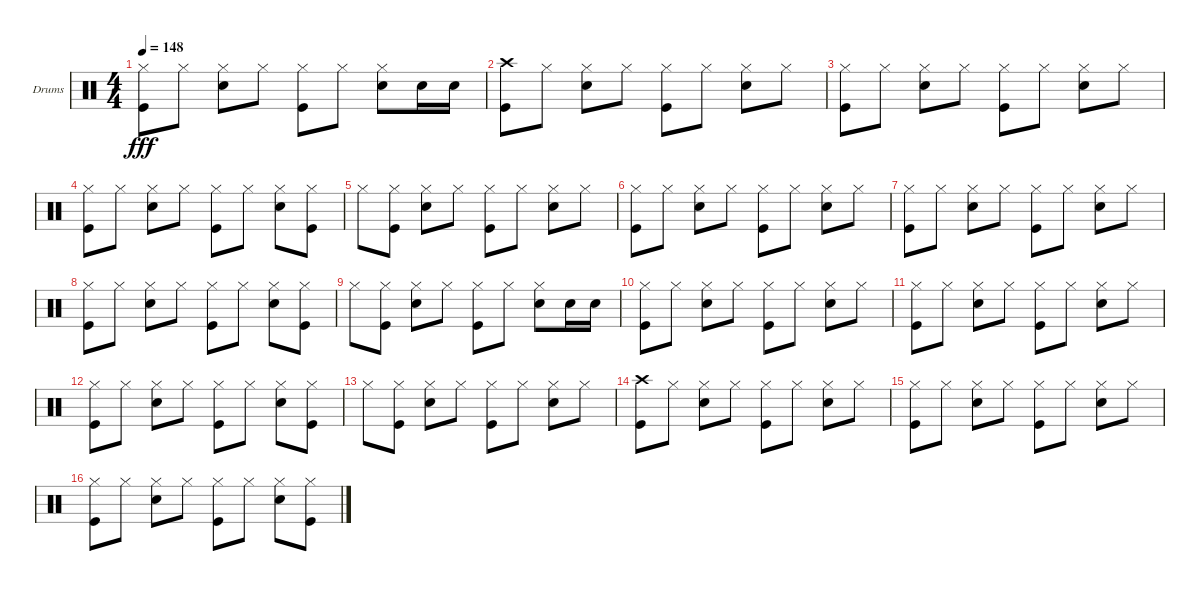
\bracketExtendMode groupsimilarinstruments
\firstSystemTrackNameOrientation horizontal
\otherSystemsTrackNameOrientation horizontal
\track ("James Kottak" "Drums") {instrument percussion}
\staff {score}
\articulation defaults
\ts (4 4)
\tempo 148
\clef neutral
\ks c
("Kick (hit)" "Hi-Hat (closed)").8{dy fff} "Hi-Hat (closed)".8 ("Hi-Hat (closed)" "Snare (hit) 2").8 "Hi-Hat (closed)".8 ("Hi-Hat (closed)" "Kick (hit)").8 "Hi-Hat (closed)".8 ("Hi-Hat (closed)" "Snare (hit) 2").8 "Snare (hit) 2".16 "Snare (hit) 2".16 |
("Kick (hit)" "Crash high (hit)").8 "Hi-Hat (closed)".8 ("Hi-Hat (closed)" "Snare (hit) 2").8 "Hi-Hat (closed)".8 ("Hi-Hat (closed)" "Kick (hit)").8 "Hi-Hat (closed)".8 ("Hi-Hat (closed)" "Snare (hit) 2").8 "Hi-Hat (closed)".8 |
("Kick (hit)" "Hi-Hat (closed)").8 "Hi-Hat (closed)".8 ("Hi-Hat (closed)" "Snare (hit) 2").8 "Hi-Hat (closed)".8 ("Hi-Hat (closed)" "Kick (hit)").8 "Hi-Hat (closed)".8 ("Hi-Hat (closed)" "Snare (hit) 2").8 "Hi-Hat (closed)".8 |
("Kick (hit)" "Hi-Hat (closed)").8 "Hi-Hat (closed)".8 ("Hi-Hat (closed)" "Snare (hit) 2").8 "Hi-Hat (closed)".8 ("Hi-Hat (closed)" "Kick (hit)").8 "Hi-Hat (closed)".8 ("Hi-Hat (closed)" "Snare (hit) 2").8 ("Hi-Hat (closed)" "Kick (hit)").8 |
"Hi-Hat (closed)".8 ("Kick (hit)" "Hi-Hat (closed)").8 ("Snare (hit) 2" "Hi-Hat (closed)").8 "Hi-Hat (closed)".8 ("Hi-Hat (closed)" "Kick (hit)").8 "Hi-Hat (closed)".8 ("Hi-Hat (closed)" "Snare (hit) 2").8 "Hi-Hat (closed)".8 |
("Kick (hit)" "Hi-Hat (closed)").8 "Hi-Hat (closed)".8 ("Hi-Hat (closed)" "Snare (hit) 2").8 "Hi-Hat (closed)".8 ("Hi-Hat (closed)" "Kick (hit)").8 "Hi-Hat (closed)".8 ("Hi-Hat (closed)" "Snare (hit) 2").8 "Hi-Hat (closed)".8 |
("Kick (hit)" "Hi-Hat (closed)").8 "Hi-Hat (closed)".8 ("Hi-Hat (closed)" "Snare (hit) 2").8 "Hi-Hat (closed)".8 ("Hi-Hat (closed)" "Kick (hit)").8 "Hi-Hat (closed)".8 ("Hi-Hat (closed)" "Snare (hit) 2").8 "Hi-Hat (closed)".8 |
("Kick (hit)" "Hi-Hat (closed)").8 "Hi-Hat (closed)".8 ("Hi-Hat (closed)" "Snare (hit) 2").8 "Hi-Hat (closed)".8 ("Hi-Hat (closed)" "Kick (hit)").8 "Hi-Hat (closed)".8 ("Hi-Hat (closed)" "Snare (hit) 2").8 ("Hi-Hat (closed)" "Kick (hit)").8 |
"Hi-Hat (closed)".8 ("Kick (hit)" "Hi-Hat (closed)").8 ("Snare (hit) 2" "Hi-Hat (closed)").8 "Hi-Hat (closed)".8 ("Hi-Hat (closed)" "Kick (hit)").8 "Hi-Hat (closed)".8 ("Hi-Hat (closed)" "Snare (hit) 2").8 "Snare (hit) 2".16 "Snare (hit) 2".16 |
("Kick (hit)" "Hi-Hat (closed)").8 "Hi-Hat (closed)".8 ("Hi-Hat (closed)" "Snare (hit) 2").8 "Hi-Hat (closed)".8 ("Hi-Hat (closed)" "Kick (hit)").8 "Hi-Hat (closed)".8 ("Hi-Hat (closed)" "Snare (hit) 2").8 "Hi-Hat (closed)".8 |
("Kick (hit)" "Hi-Hat (closed)").8 "Hi-Hat (closed)".8 ("Hi-Hat (closed)" "Snare (hit) 2").8 "Hi-Hat (closed)".8 ("Hi-Hat (closed)" "Kick (hit)").8 "Hi-Hat (closed)".8 ("Hi-Hat (closed)" "Snare (hit) 2").8 "Hi-Hat (closed)".8 |
("Kick (hit)" "Hi-Hat (closed)").8 "Hi-Hat (closed)".8 ("Hi-Hat (closed)" "Snare (hit) 2").8 "Hi-Hat (closed)".8 ("Hi-Hat (closed)" "Kick (hit)").8 "Hi-Hat (closed)".8 ("Hi-Hat (closed)" "Snare (hit) 2").8 ("Hi-Hat (closed)" "Kick (hit)").8 |
"Hi-Hat (closed)".8 ("Kick (hit)" "Hi-Hat (closed)").8 ("Snare (hit) 2" "Hi-Hat (closed)").8 "Hi-Hat (closed)".8 ("Hi-Hat (closed)" "Kick (hit)").8 "Hi-Hat (closed)".8 ("Hi-Hat (closed)" "Snare (hit) 2").8 "Hi-Hat (closed)".8 |
("Kick (hit)" "Crash high (hit)").8 "Hi-Hat (closed)".8 ("Hi-Hat (closed)" "Snare (hit) 2").8 "Hi-Hat (closed)".8 ("Hi-Hat (closed)" "Kick (hit)").8 "Hi-Hat (closed)".8 ("Hi-Hat (closed)" "Snare (hit) 2").8 "Hi-Hat (closed)".8 |
("Kick (hit)" "Hi-Hat (closed)").8 "Hi-Hat (closed)".8 ("Hi-Hat (closed)" "Snare (hit) 2").8 "Hi-Hat (closed)".8 ("Hi-Hat (closed)" "Kick (hit)").8 "Hi-Hat (closed)".8 ("Hi-Hat (closed)" "Snare (hit) 2").8 "Hi-Hat (closed)".8 |
("Kick (hit)" "Hi-Hat (closed)").8 "Hi-Hat (closed)".8 ("Hi-Hat (closed)" "Snare (hit) 2").8 "Hi-Hat (closed)".8 ("Hi-Hat (closed)" "Kick (hit)").8 "Hi-Hat (closed)".8 ("Hi-Hat (closed)" "Snare (hit) 2").8 ("Hi-Hat (closed)" "Kick (hit)").8
